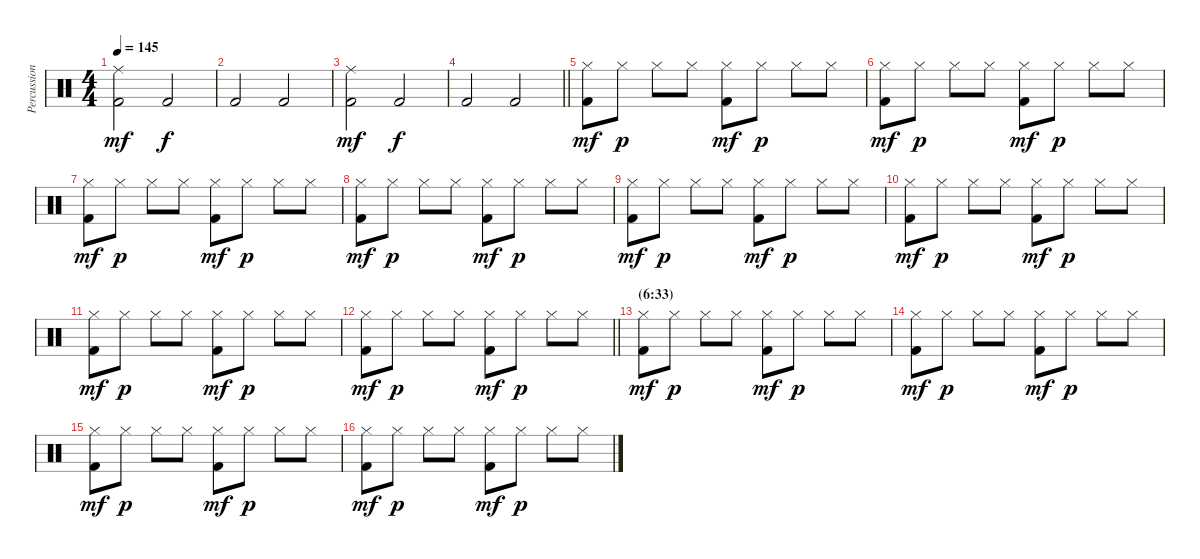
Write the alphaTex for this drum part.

\track ("Percussion" "Percussion") {instrument percussion}
\staff {score}
\articulation defaults
\ts (4 4)
\tempo 145
\clef neutral
\ks c
("Ride (middle)" "Kick (hit) 2").2{dy mf} "Kick (hit) 2".2{dy f} |
"Kick (hit) 2".2 "Kick (hit) 2".2 |
("Ride (middle)" "Kick (hit) 2").2{dy mf} "Kick (hit) 2".2{dy f} |
\barLineRight lightlight "Kick (hit) 2".2 "Kick (hit) 2".2
|
("Hi-Hat (closed)" "Kick (hit) 2").8{dy mf} "Hi-Hat (closed)".8{dy p} "Hi-Hat (closed)".8 "Hi-Hat (closed)".8 ("Hi-Hat (closed)" "Kick (hit) 2").8{dy mf} "Hi-Hat (closed)".8{dy p} "Hi-Hat (closed)".8 "Hi-Hat (closed)".8 |
("Hi-Hat (closed)" "Kick (hit) 2").8{dy mf} "Hi-Hat (closed)".8{dy p} "Hi-Hat (closed)".8 "Hi-Hat (closed)".8 ("Hi-Hat (closed)" "Kick (hit) 2").8{dy mf} "Hi-Hat (closed)".8{dy p} "Hi-Hat (closed)".8 "Hi-Hat (closed)".8 |
("Hi-Hat (closed)" "Kick (hit) 2").8{dy mf} "Hi-Hat (closed)".8{dy p} "Hi-Hat (closed)".8 "Hi-Hat (closed)".8 ("Hi-Hat (closed)" "Kick (hit) 2").8{dy mf} "Hi-Hat (closed)".8{dy p} "Hi-Hat (closed)".8 "Hi-Hat (closed)".8 |
("Hi-Hat (closed)" "Kick (hit) 2").8{dy mf} "Hi-Hat (closed)".8{dy p} "Hi-Hat (closed)".8 "Hi-Hat (closed)".8 ("Hi-Hat (closed)" "Kick (hit) 2").8{dy mf} "Hi-Hat (closed)".8{dy p} "Hi-Hat (closed)".8 "Hi-Hat (closed)".8 |
("Hi-Hat (closed)" "Kick (hit) 2").8{dy mf} "Hi-Hat (closed)".8{dy p} "Hi-Hat (closed)".8 "Hi-Hat (closed)".8 ("Hi-Hat (closed)" "Kick (hit) 2").8{dy mf} "Hi-Hat (closed)".8{dy p} "Hi-Hat (closed)".8 "Hi-Hat (closed)".8 |
("Hi-Hat (closed)" "Kick (hit) 2").8{dy mf} "Hi-Hat (closed)".8{dy p} "Hi-Hat (closed)".8 "Hi-Hat (closed)".8 ("Hi-Hat (closed)" "Kick (hit) 2").8{dy mf} "Hi-Hat (closed)".8{dy p} "Hi-Hat (closed)".8 "Hi-Hat (closed)".8 |
("Hi-Hat (closed)" "Kick (hit) 2").8{dy mf} "Hi-Hat (closed)".8{dy p} "Hi-Hat (closed)".8 "Hi-Hat (closed)".8 ("Hi-Hat (closed)" "Kick (hit) 2").8{dy mf} "Hi-Hat (closed)".8{dy p} "Hi-Hat (closed)".8 "Hi-Hat (closed)".8 |
\barLineRight lightlight
("Hi-Hat (closed)" "Kick (hit) 2").8{dy mf} "Hi-Hat (closed)".8{dy p} "Hi-Hat (closed)".8 "Hi-Hat (closed)".8 ("Hi-Hat (closed)" "Kick (hit) 2").8{dy mf} "Hi-Hat (closed)".8{dy p} "Hi-Hat (closed)".8 "Hi-Hat (closed)".8 |
\section ("" "(6:33)")
("Hi-Hat (closed)" "Kick (hit) 2").8{dy mf} "Hi-Hat (closed)".8{dy p} "Hi-Hat (closed)".8 "Hi-Hat (closed)".8 ("Hi-Hat (closed)" "Kick (hit) 2").8{dy mf} "Hi-Hat (closed)".8{dy p} "Hi-Hat (closed)".8 "Hi-Hat (closed)".8 |
("Hi-Hat (closed)" "Kick (hit) 2").8{dy mf} "Hi-Hat (closed)".8{dy p} "Hi-Hat (closed)".8 "Hi-Hat (closed)".8 ("Hi-Hat (closed)" "Kick (hit) 2").8{dy mf} "Hi-Hat (closed)".8{dy p} "Hi-Hat (closed)".8 "Hi-Hat (closed)".8 |
("Hi-Hat (closed)" "Kick (hit) 2").8{dy mf} "Hi-Hat (closed)".8{dy p} "Hi-Hat (closed)".8 "Hi-Hat (closed)".8 ("Hi-Hat (closed)" "Kick (hit) 2").8{dy mf} "Hi-Hat (closed)".8{dy p} "Hi-Hat (closed)".8 "Hi-Hat (closed)".8 |
("Hi-Hat (closed)" "Kick (hit) 2").8{dy mf} "Hi-Hat (closed)".8{dy p} "Hi-Hat (closed)".8 "Hi-Hat (closed)".8 ("Hi-Hat (closed)" "Kick (hit) 2").8{dy mf} "Hi-Hat (closed)".8{dy p} "Hi-Hat (closed)".8 "Hi-Hat (closed)".8
